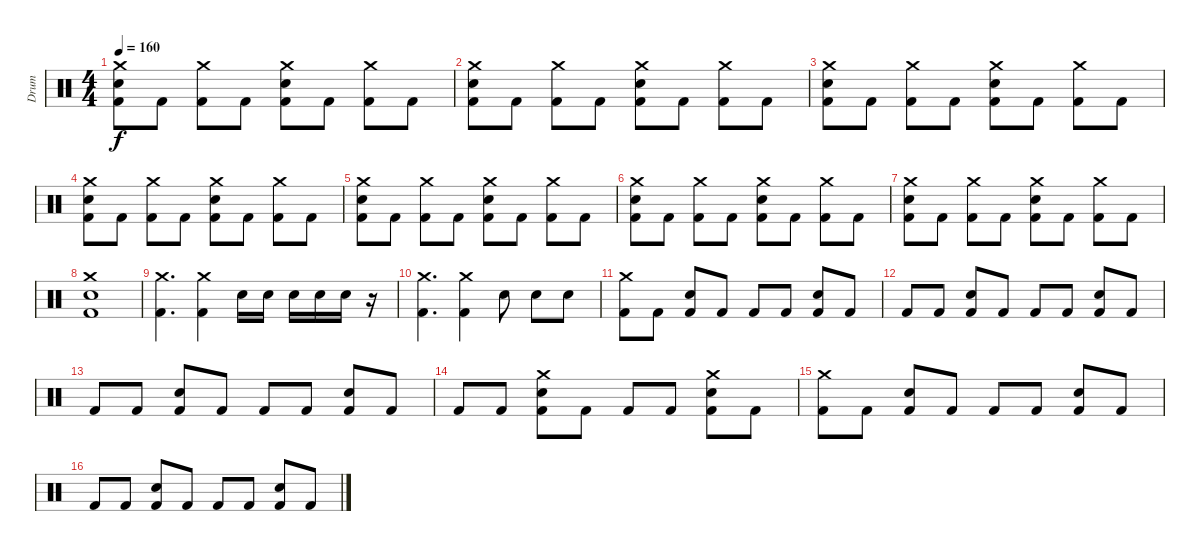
\track ("Drum" "Drum") {instrument percussion}
\staff {score}
\articulation defaults
\ts (4 4)
\tempo 160
\clef neutral
\ks c
("Crash medium (hit)" "Electric Snare (hit)" "Kick (hit) 2").8{dy f} "Kick (hit) 2".8 ("Crash medium (hit)" "Kick (hit) 2").8 "Kick (hit) 2".8 ("Crash medium (hit)" "Electric Snare (hit)" "Kick (hit) 2").8 "Kick (hit) 2".8 ("Crash medium (hit)" "Kick (hit) 2").8 "Kick (hit) 2".8 |
("Crash medium (hit)" "Electric Snare (hit)" "Kick (hit) 2").8 "Kick (hit) 2".8 ("Crash medium (hit)" "Kick (hit) 2").8 "Kick (hit) 2".8 ("Crash medium (hit)" "Electric Snare (hit)" "Kick (hit) 2").8 "Kick (hit) 2".8 ("Crash medium (hit)" "Kick (hit) 2").8 "Kick (hit) 2".8 |
("Crash medium (hit)" "Electric Snare (hit)" "Kick (hit) 2").8 "Kick (hit) 2".8 ("Crash medium (hit)" "Kick (hit) 2").8 "Kick (hit) 2".8 ("Crash medium (hit)" "Electric Snare (hit)" "Kick (hit) 2").8 "Kick (hit) 2".8 ("Crash medium (hit)" "Kick (hit) 2").8 "Kick (hit) 2".8 |
("Crash medium (hit)" "Electric Snare (hit)" "Kick (hit) 2").8 "Kick (hit) 2".8 ("Crash medium (hit)" "Kick (hit) 2").8 "Kick (hit) 2".8 ("Crash medium (hit)" "Electric Snare (hit)" "Kick (hit) 2").8 "Kick (hit) 2".8 ("Crash medium (hit)" "Kick (hit) 2").8 "Kick (hit) 2".8 |
("Crash medium (hit)" "Electric Snare (hit)" "Kick (hit) 2").8 "Kick (hit) 2".8 ("Crash medium (hit)" "Kick (hit) 2").8 "Kick (hit) 2".8 ("Crash medium (hit)" "Electric Snare (hit)" "Kick (hit) 2").8 "Kick (hit) 2".8 ("Crash medium (hit)" "Kick (hit) 2").8 "Kick (hit) 2".8 |
("Crash medium (hit)" "Electric Snare (hit)" "Kick (hit) 2").8 "Kick (hit) 2".8 ("Crash medium (hit)" "Kick (hit) 2").8 "Kick (hit) 2".8 ("Crash medium (hit)" "Electric Snare (hit)" "Kick (hit) 2").8 "Kick (hit) 2".8 ("Crash medium (hit)" "Kick (hit) 2").8 "Kick (hit) 2".8 |
("Crash medium (hit)" "Electric Snare (hit)" "Kick (hit) 2").8 "Kick (hit) 2".8 ("Crash medium (hit)" "Kick (hit) 2").8 "Kick (hit) 2".8 ("Crash medium (hit)" "Electric Snare (hit)" "Kick (hit) 2").8 "Kick (hit) 2".8 ("Crash medium (hit)" "Kick (hit) 2").8 "Kick (hit) 2".8 |
("Crash medium (hit)" "Electric Snare (hit)" "Kick (hit) 2").1 |
("Crash medium (hit)" "Kick (hit) 2").4{d} ("Crash medium (hit)" "Kick (hit) 2").4 "Electric Snare (hit)".16 "Electric Snare (hit)".16 "Electric Snare (hit)".16 "Electric Snare (hit)".16 "Electric Snare (hit)".16 r.16 |
("Crash medium (hit)" "Kick (hit) 2").4{d} ("Crash medium (hit)" "Kick (hit) 2").4 "Electric Snare (hit)".8 "Electric Snare (hit)".8 "Electric Snare (hit)".8 |
("Crash medium (hit)" "Kick (hit) 2").8 "Kick (hit) 2".8 ("Electric Snare (hit)" "Kick (hit) 2").8 "Kick (hit) 2".8 "Kick (hit) 2".8 "Kick (hit) 2".8 ("Electric Snare (hit)" "Kick (hit) 2").8 "Kick (hit) 2".8 |
"Kick (hit) 2".8 "Kick (hit) 2".8 ("Electric Snare (hit)" "Kick (hit) 2").8 "Kick (hit) 2".8 "Kick (hit) 2".8 "Kick (hit) 2".8 ("Electric Snare (hit)" "Kick (hit) 2").8 "Kick (hit) 2".8 |
"Kick (hit) 2".8 "Kick (hit) 2".8 ("Electric Snare (hit)" "Kick (hit) 2").8 "Kick (hit) 2".8 "Kick (hit) 2".8 "Kick (hit) 2".8 ("Electric Snare (hit)" "Kick (hit) 2").8 "Kick (hit) 2".8 |
"Kick (hit) 2".8 "Kick (hit) 2".8 ("Crash medium (hit)" "Electric Snare (hit)" "Kick (hit) 2").8 "Kick (hit) 2".8 "Kick (hit) 2".8 "Kick (hit) 2".8 ("Crash medium (hit)" "Electric Snare (hit)" "Kick (hit) 2").8 "Kick (hit) 2".8 |
("Crash medium (hit)" "Kick (hit) 2").8 "Kick (hit) 2".8 ("Electric Snare (hit)" "Kick (hit) 2").8 "Kick (hit) 2".8 "Kick (hit) 2".8 "Kick (hit) 2".8 ("Electric Snare (hit)" "Kick (hit) 2").8 "Kick (hit) 2".8 |
"Kick (hit) 2".8 "Kick (hit) 2".8 ("Electric Snare (hit)" "Kick (hit) 2").8 "Kick (hit) 2".8 "Kick (hit) 2".8 "Kick (hit) 2".8 ("Electric Snare (hit)" "Kick (hit) 2").8 "Kick (hit) 2".8
